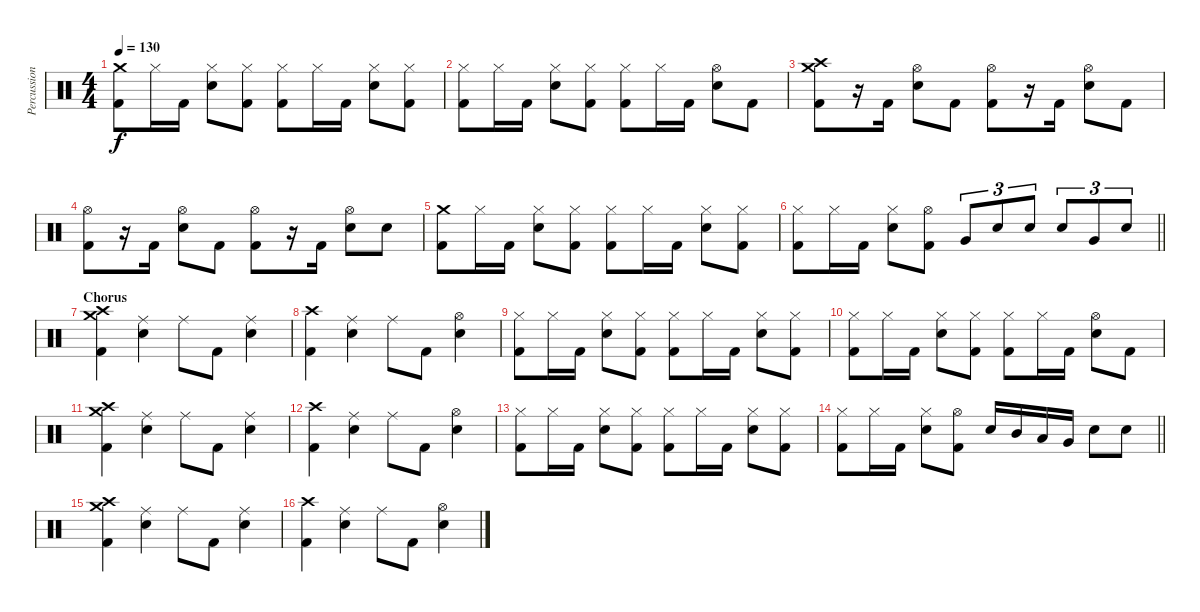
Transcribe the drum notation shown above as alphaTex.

\track ("Percussion" "Percussion") {instrument percussion}
\staff {score}
\articulation defaults
\ts (4 4)
\tempo 130
\clef neutral
\ks c
("Crash medium (hit)" "Kick (hit) 2").8{dy f} "Hi-Hat (closed)".16 "Kick (hit) 2".16 ("Hi-Hat (closed)" "Snare (hit) 2").8 ("Hi-Hat (closed)" "Kick (hit) 2").8 ("Hi-Hat (closed)" "Kick (hit) 2").8 "Hi-Hat (closed)".16 "Kick (hit) 2".16 ("Hi-Hat (closed)" "Snare (hit) 2").8 ("Hi-Hat (closed)" "Kick (hit) 2").8 |
("Hi-Hat (closed)" "Kick (hit) 2").8 "Hi-Hat (closed)".16 "Kick (hit) 2".16 ("Hi-Hat (closed)" "Snare (hit) 2").8 ("Hi-Hat (closed)" "Kick (hit) 2").8 ("Hi-Hat (closed)" "Kick (hit) 2").8 "Hi-Hat (closed)".16 "Kick (hit) 2".16 ("Hi-Hat (open)" "Snare (hit) 2").8 "Kick (hit) 2".8 |
("Crash medium (hit)" "Crash high (hit)" "Kick (hit) 2").8 r.16 "Kick (hit) 2".16 ("Hi-Hat (open)" "Snare (hit) 2").8 "Kick (hit) 2".8 ("Hi-Hat (open)" "Kick (hit) 2").8 r.16 "Kick (hit) 2".16 ("Hi-Hat (open)" "Snare (hit) 2").8 "Kick (hit) 2".8 |
("Hi-Hat (open)" "Kick (hit) 2").8 r.16 "Kick (hit) 2".16 ("Hi-Hat (open)" "Snare (hit) 2").8 "Kick (hit) 2".8 ("Hi-Hat (open)" "Kick (hit) 2").8 r.16 "Kick (hit) 2".16 ("Hi-Hat (open)" "Snare (hit) 2").8 "Snare (hit) 2".8 |
("Crash medium (hit)" "Kick (hit) 2").8 "Hi-Hat (closed)".16 "Kick (hit) 2".16 ("Hi-Hat (closed)" "Snare (hit) 2").8 ("Hi-Hat (closed)" "Kick (hit) 2").8 ("Hi-Hat (closed)" "Kick (hit) 2").8 "Hi-Hat (closed)".16 "Kick (hit) 2".16 ("Hi-Hat (closed)" "Snare (hit) 2").8 ("Hi-Hat (closed)" "Kick (hit) 2").8 |
\barLineRight lightlight
("Hi-Hat (closed)" "Kick (hit) 2").8 "Hi-Hat (closed)".16 "Kick (hit) 2".16 ("Hi-Hat (closed)" "Snare (hit) 2").8 ("Hi-Hat (open)" "Kick (hit) 2").8 "Very Low Tom (hit)".8{tu (3 2)} "Snare (hit) 2".8{tu (3 2)} "Snare (hit) 2".8{tu (3 2)} "Snare (hit) 2".8{tu (3 2)} "Very Low Tom (hit)".8{tu (3 2)} "Snare (hit) 2".8{tu (3 2)} |
\section ("" "Chorus")
("Crash high (hit)" "Crash medium (hit)" "Kick (hit) 2").4 ("Ride (middle)" "Snare (hit) 2").4 "Ride (middle)".8 "Kick (hit) 2".8 ("Ride (middle)" "Snare (hit) 2").4 |
("Crash high (hit)" "Kick (hit) 2").4 ("Ride (middle)" "Snare (hit) 2").4 "Ride (middle)".8 "Kick (hit) 2".8 ("Hi-Hat (open)" "Snare (hit) 2").4 |
("Hi-Hat (closed)" "Kick (hit) 2").8 "Hi-Hat (closed)".16 "Kick (hit) 2".16 ("Hi-Hat (closed)" "Snare (hit) 2").8 ("Hi-Hat (closed)" "Kick (hit) 2").8 ("Hi-Hat (closed)" "Kick (hit) 2").8 "Hi-Hat (closed)".16 "Kick (hit) 2".16 ("Hi-Hat (closed)" "Snare (hit) 2").8 ("Hi-Hat (closed)" "Kick (hit) 2").8 |
("Hi-Hat (closed)" "Kick (hit) 2").8 "Hi-Hat (closed)".16 "Kick (hit) 2".16 ("Hi-Hat (closed)" "Snare (hit) 2").8 ("Hi-Hat (closed)" "Kick (hit) 2").8 ("Hi-Hat (closed)" "Kick (hit) 2").8 "Hi-Hat (closed)".16 "Kick (hit) 2".16 ("Hi-Hat (open)" "Snare (hit) 2").8 "Kick (hit) 2".8 |
("Crash high (hit)" "Crash medium (hit)" "Kick (hit) 2").4 ("Ride (middle)" "Snare (hit) 2").4 "Ride (middle)".8 "Kick (hit) 2".8 ("Ride (middle)" "Snare (hit) 2").4 |
("Crash high (hit)" "Kick (hit) 2").4 ("Ride (middle)" "Snare (hit) 2").4 "Ride (middle)".8 "Kick (hit) 2".8 ("Hi-Hat (open)" "Snare (hit) 2").4 |
("Hi-Hat (closed)" "Kick (hit) 2").8 "Hi-Hat (closed)".16 "Kick (hit) 2".16 ("Hi-Hat (closed)" "Snare (hit) 2").8 ("Hi-Hat (closed)" "Kick (hit) 2").8 ("Hi-Hat (closed)" "Kick (hit) 2").8 "Hi-Hat (closed)".16 "Kick (hit) 2".16 ("Hi-Hat (closed)" "Snare (hit) 2").8 ("Hi-Hat (closed)" "Kick (hit) 2").8 |
\barLineRight lightlight
("Hi-Hat (closed)" "Kick (hit) 2").8 "Hi-Hat (closed)".16 "Kick (hit) 2".16 ("Hi-Hat (closed)" "Snare (hit) 2").8 ("Hi-Hat (open)" "Kick (hit) 2").8 "Snare (hit) 2".16 "Mid Tom (hit)".16 "Low Tom (hit)".16 "Very Low Tom (hit)".16 "Snare (hit) 2".8 "Snare (hit) 2".8 |
("Crash high (hit)" "Crash medium (hit)" "Kick (hit) 2").4 ("Ride (middle)" "Snare (hit) 2").4 "Ride (middle)".8 "Kick (hit) 2".8 ("Ride (middle)" "Snare (hit) 2").4 |
("Crash high (hit)" "Kick (hit) 2").4 ("Ride (middle)" "Snare (hit) 2").4 "Ride (middle)".8 "Kick (hit) 2".8 ("Hi-Hat (open)" "Snare (hit) 2").4
